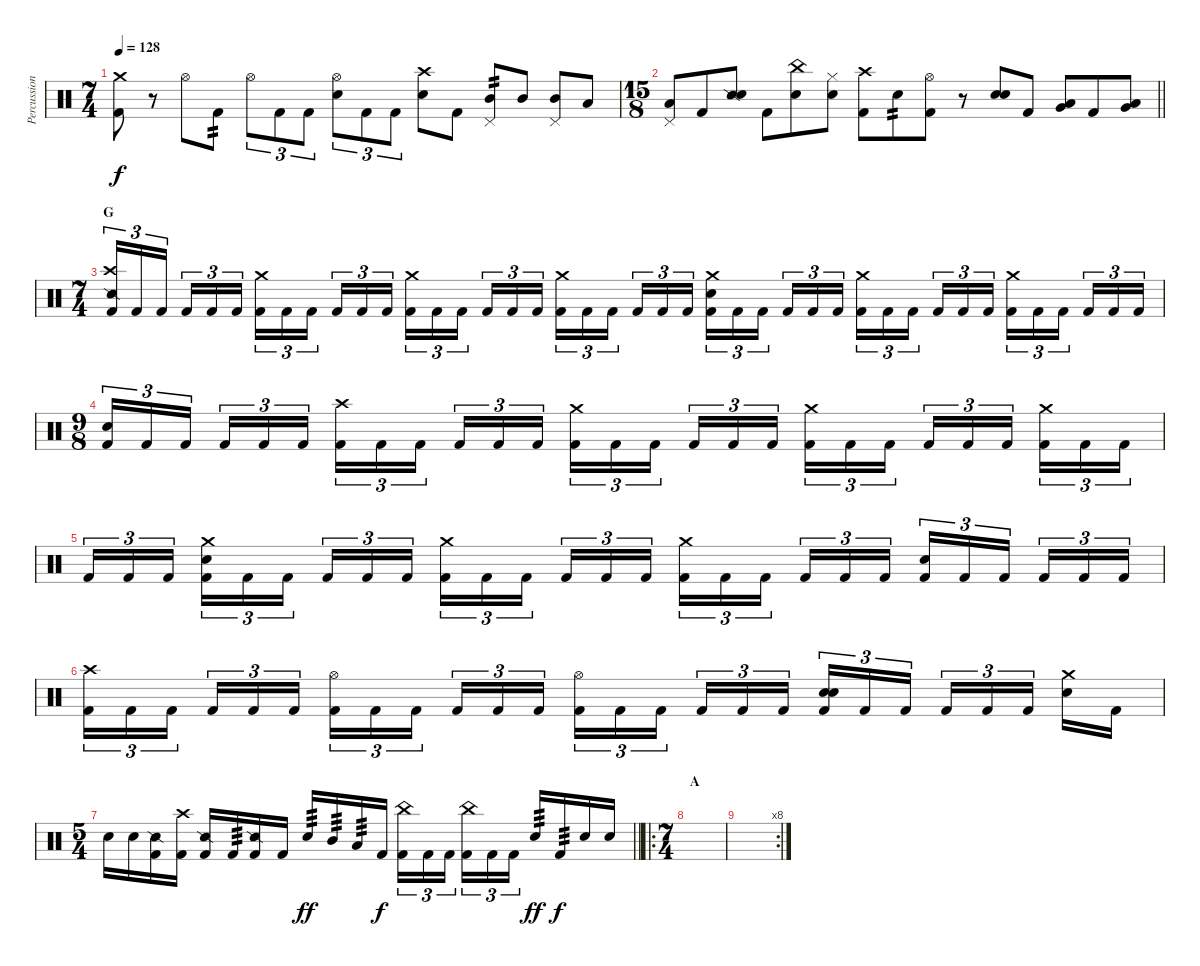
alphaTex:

\track ("Percussion" "Percussion") {instrument percussion}
\staff {score}
\articulation defaults
\ts (7 4)
\tempo 128
\clef neutral
\ks c
("Crash medium (hit)" "Kick (hit) 2").8{dy f} r.8 "Hi-Hat (open)".8 "Kick (hit) 2".8{tp 2} "Hi-Hat (open)".8{tu (3 2)} "Kick (hit) 2".8{tu (3 2)} "Kick (hit) 2".8{tu (3 2)} ("Hi-Hat (open)" "Snare (hit) 2").8{tu (3 2)} "Kick (hit) 2".8{tu (3 2)} "Kick (hit) 2".8{tu (3 2)} ("Crash high (hit)" "Snare (hit) 2").8 "Kick (hit) 2".8 ("Pedal Hi-Hat (hit)" "Mid Tom (hit)").8{tp 2} "Mid Tom (hit)".8 ("Pedal Hi-Hat (hit)" "Mid Tom (hit)").8 "Low Tom (hit)".8 |
\ts (15 8)
\barLineRight lightlight
("Pedal Hi-Hat (hit)" "Low Tom (hit)").8 "Kick (hit) 2".8 ("Snare (side stick) 2" "Snare (hit) 2").8 "Kick (hit) 2".8 ("China (hit)" "Snare (hit) 2").8 ("Hi-Hat (closed)" "Snare (hit) 2").8 ("Crash high (hit)" "Kick (hit) 2").8 "Snare (hit)".8{tp 2} ("Hi-Hat (open)" "Kick (hit) 2").8 r.8 ("Snare (hit)" "Snare (hit) 2").8 "Kick (hit) 2".8 ("Low Tom (hit)" "Very Low Tom (hit)").8{bu 60} "Kick (hit) 2".8 ("Very Low Tom (hit)" "Low Floor Tom (hit)").8{bu 60} |
\ts (7 4)
\section ("" "G")
("Crash high (hit)" "Snare (side stick) 2" "Kick (hit) 2").16{tu (3 2)} "Kick (hit) 2".16{tu (3 2)} "Kick (hit) 2".16{tu (3 2) beam splitsecondary} "Kick (hit) 2".16{tu (3 2)} "Kick (hit) 2".16{tu (3 2)} "Kick (hit) 2".16{tu (3 2)} ("Crash medium (hit)" "Kick (hit) 2").16{tu (3 2)} "Kick (hit) 2".16{tu (3 2)} "Kick (hit) 2".16{tu (3 2) beam splitsecondary} "Kick (hit) 2".16{tu (3 2)} "Kick (hit) 2".16{tu (3 2)} "Kick (hit) 2".16{tu (3 2)} ("Crash medium (hit)" "Kick (hit) 2").16{tu (3 2)} "Kick (hit) 2".16{tu (3 2)} "Kick (hit) 2".16{tu (3 2) beam splitsecondary} "Kick (hit) 2".16{tu (3 2)} "Kick (hit) 2".16{tu (3 2)} "Kick (hit) 2".16{tu (3 2)} ("Crash medium (hit)" "Kick (hit) 2").16{tu (3 2)} "Kick (hit) 2".16{tu (3 2)} "Kick (hit) 2".16{tu (3 2) beam splitsecondary} "Kick (hit) 2".16{tu (3 2)} "Kick (hit) 2".16{tu (3 2)} "Kick (hit) 2".16{tu (3 2)} ("Crash medium (hit)" "Snare (hit) 2" "Kick (hit) 2").16{tu (3 2)} "Kick (hit) 2".16{tu (3 2)} "Kick (hit) 2".16{tu (3 2) beam splitsecondary} "Kick (hit) 2".16{tu (3 2)} "Kick (hit) 2".16{tu (3 2)} "Kick (hit) 2".16{tu (3 2)} ("Crash medium (hit)" "Kick (hit) 2").16{tu (3 2)} "Kick (hit) 2".16{tu (3 2)} "Kick (hit) 2".16{tu (3 2) beam splitsecondary} "Kick (hit) 2".16{tu (3 2)} "Kick (hit) 2".16{tu (3 2)} "Kick (hit) 2".16{tu (3 2)} ("Crash medium (hit)" "Kick (hit) 2").16{tu (3 2)} "Kick (hit) 2".16{tu (3 2)} "Kick (hit) 2".16{tu (3 2) beam splitsecondary} "Kick (hit) 2".16{tu (3 2)} "Kick (hit) 2".16{tu (3 2)} "Kick (hit) 2".16{tu (3 2)} |
\ts (9 8)
("Snare (hit)" "Kick (hit) 2").16{tu (3 2)} "Kick (hit) 2".16{tu (3 2)} "Kick (hit) 2".16{tu (3 2) beam splitsecondary} "Kick (hit) 2".16{tu (3 2)} "Kick (hit) 2".16{tu (3 2)} "Kick (hit) 2".16{tu (3 2) beam splitsecondary} ("Crash high (hit)" "Kick (hit) 2").16{tu (3 2)} "Kick (hit) 2".16{tu (3 2)} "Kick (hit) 2".16{tu (3 2)} "Kick (hit) 2".16{tu (3 2)} "Kick (hit) 2".16{tu (3 2)} "Kick (hit) 2".16{tu (3 2) beam splitsecondary} ("Crash medium (hit)" "Kick (hit) 2").16{tu (3 2)} "Kick (hit) 2".16{tu (3 2)} "Kick (hit) 2".16{tu (3 2) beam splitsecondary} "Kick (hit) 2".16{tu (3 2)} "Kick (hit) 2".16{tu (3 2)} "Kick (hit) 2".16{tu (3 2)} ("Crash medium (hit)" "Kick (hit) 2").16{tu (3 2)} "Kick (hit) 2".16{tu (3 2)} "Kick (hit) 2".16{tu (3 2) beam splitsecondary} "Kick (hit) 2".16{tu (3 2)} "Kick (hit) 2".16{tu (3 2)} "Kick (hit) 2".16{tu (3 2) beam splitsecondary} ("Crash medium (hit)" "Kick (hit) 2").16{tu (3 2)} "Kick (hit) 2".16{tu (3 2)} "Kick (hit) 2".16{tu (3 2)} |
"Kick (hit) 2".16{tu (3 2)} "Kick (hit) 2".16{tu (3 2)} "Kick (hit) 2".16{tu (3 2) beam splitsecondary} ("Crash medium (hit)" "Snare (hit) 2" "Kick (hit) 2").16{tu (3 2)} "Kick (hit) 2".16{tu (3 2)} "Kick (hit) 2".16{tu (3 2) beam splitsecondary} "Kick (hit) 2".16{tu (3 2)} "Kick (hit) 2".16{tu (3 2)} "Kick (hit) 2".16{tu (3 2)} ("Crash medium (hit)" "Kick (hit) 2").16{tu (3 2)} "Kick (hit) 2".16{tu (3 2)} "Kick (hit) 2".16{tu (3 2) beam splitsecondary} "Kick (hit) 2".16{tu (3 2)} "Kick (hit) 2".16{tu (3 2)} "Kick (hit) 2".16{tu (3 2) beam splitsecondary} ("Crash medium (hit)" "Kick (hit) 2").16{tu (3 2)} "Kick (hit) 2".16{tu (3 2)} "Kick (hit) 2".16{tu (3 2)} "Kick (hit) 2".16{tu (3 2)} "Kick (hit) 2".16{tu (3 2)} "Kick (hit) 2".16{tu (3 2) beam splitsecondary} ("Snare (hit)" "Kick (hit) 2").16{tu (3 2)} "Kick (hit) 2".16{tu (3 2)} "Kick (hit) 2".16{tu (3 2) beam splitsecondary} "Kick (hit) 2".16{tu (3 2)} "Kick (hit) 2".16{tu (3 2)} "Kick (hit) 2".16{tu (3 2)} |
("Crash high (hit)" "Kick (hit) 2").16{tu (3 2)} "Kick (hit) 2".16{tu (3 2)} "Kick (hit) 2".16{tu (3 2) beam splitsecondary} "Kick (hit) 2".16{tu (3 2)} "Kick (hit) 2".16{tu (3 2)} "Kick (hit) 2".16{tu (3 2) beam splitsecondary} ("Hi-Hat (open)" "Kick (hit) 2").16{tu (3 2)} "Kick (hit) 2".16{tu (3 2)} "Kick (hit) 2".16{tu (3 2)} "Kick (hit) 2".16{tu (3 2)} "Kick (hit) 2".16{tu (3 2)} "Kick (hit) 2".16{tu (3 2) beam splitsecondary} ("Hi-Hat (open)" "Kick (hit) 2").16{tu (3 2)} "Kick (hit) 2".16{tu (3 2)} "Kick (hit) 2".16{tu (3 2) beam splitsecondary} "Kick (hit) 2".16{tu (3 2)} "Kick (hit) 2".16{tu (3 2)} "Kick (hit) 2".16{tu (3 2)} ("Snare (hit)" "Snare (hit) 2" "Kick (hit) 2").16{tu (3 2)} "Kick (hit) 2".16{tu (3 2)} "Kick (hit) 2".16{tu (3 2) beam splitsecondary} "Kick (hit) 2".16{tu (3 2)} "Kick (hit) 2".16{tu (3 2)} "Kick (hit) 2".16{tu (3 2) beam splitsecondary} ("Crash medium (hit)" "Snare (hit) 2").16 "Kick (hit) 2".16 |
\ts (5 4)
\barLineRight lightlight "Snare (hit) 2".16 "Snare (hit) 2".16
("Snare (side stick) 2" "Kick (hit) 2").16 ("Crash high (hit)" "Kick (hit) 2").16 ("Snare (side stick) 2" "Kick (hit) 2").16 "Kick (hit) 2".16{tp 3} ("Snare (side stick) 2" "Kick (hit) 2").16 "Kick (hit) 2".16 "Snare (hit) 2".16{tp 3 dy ff} "Mid Tom (hit)".16{tp 3} "Low Tom (hit)".16{tp 3} "Kick (hit) 2".16{dy f} ("China (hit)" "Kick (hit) 2").16{tu (3 2)} "Kick (hit) 2".16{tu (3 2)} "Kick (hit) 2".16{tu (3 2) beam splitsecondary} ("China (hit)" "Kick (hit) 2").16{tu (3 2)} "Kick (hit) 2".16{tu (3 2)} "Kick (hit) 2".16{tu (3 2)} "Snare (hit) 2".16{tp 3 dy ff} "Kick (hit) 2".16{tp 3 dy f} "Snare (hit) 2".16 "Snare (hit) 2".16 |
\ro
\ts (7 4)
\section ("" "A")
|
\rc 8
